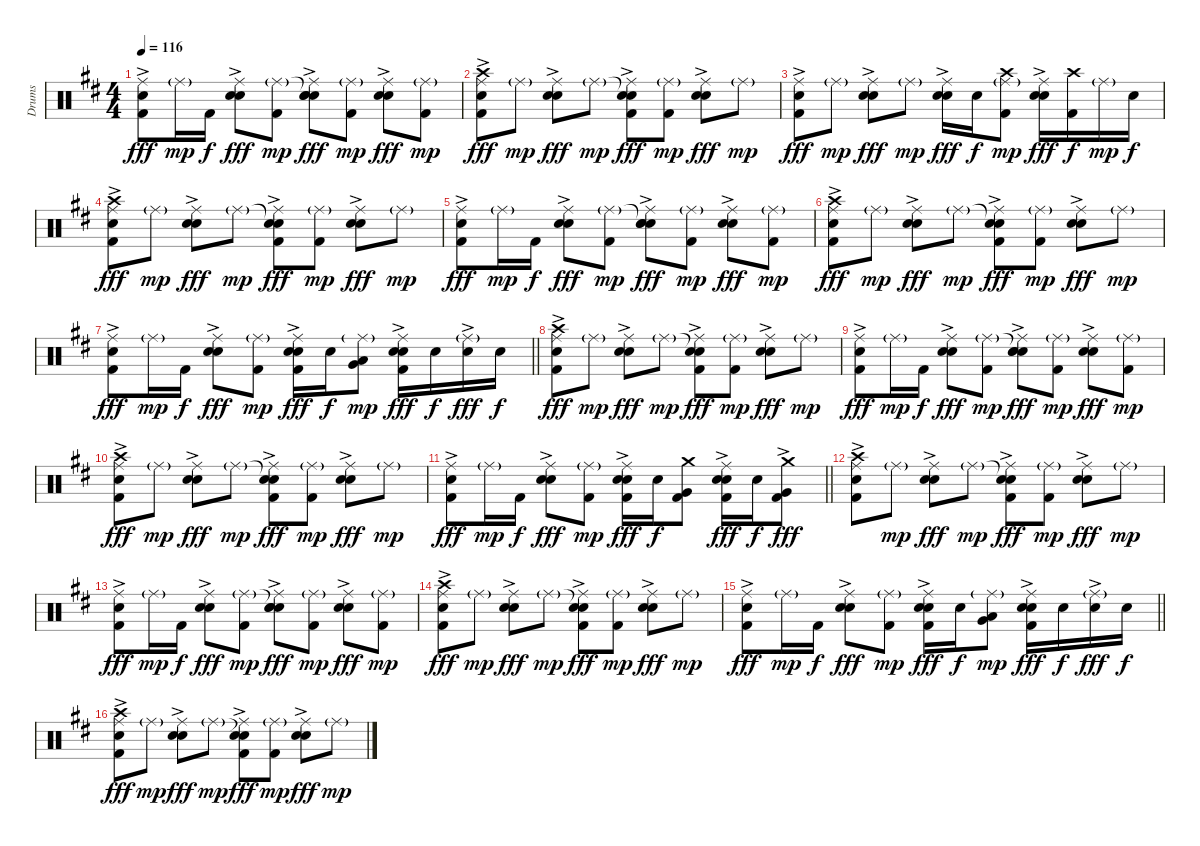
\track ("Drums" "Drums") {instrument percussion}
\staff {score}
\articulation defaults
\ts (4 4)
\tempo 116
\clef neutral
\ks d
("Ride (middle)" "Hand Clap (hit)"{ac} "Kick (hit) 2").8{dy fff} "Ride (middle)"{g}.16{dy mp} "Kick (hit) 2".16{dy f} ("Ride (middle)" "Hand Clap (hit)"{ac} "Snare (hit) 2").8{dy fff} ("Ride (middle)"{g} "Kick (hit) 2").8{dy mp} ("Snare (hit)"{t} "Ride (middle)" "Hand Clap (hit)"{ac} "Snare (hit) 2").8{dy fff} ("Ride (middle)"{g} "Kick (hit) 2").8{dy mp} ("Ride (middle)" "Hand Clap (hit)"{ac} "Snare (hit) 2").8{dy fff} ("Ride (middle)"{g} "Kick (hit) 2").8{dy mp} |
("Crash high (hit)" "Ride (middle)" "Hand Clap (hit)"{ac} "Kick (hit) 2").8{dy fff} "Ride (middle)"{g}.8{dy mp} ("Ride (middle)" "Hand Clap (hit)"{ac} "Snare (hit) 2").8{dy fff} "Ride (middle)"{g}.8{dy mp} ("Snare (hit)"{t} "Ride (middle)" "Hand Clap (hit)"{ac} "Kick (hit) 2").8{dy fff} ("Ride (middle)"{g} "Kick (hit) 2").8{dy mp} ("Ride (middle)" "Hand Clap (hit)"{ac} "Snare (hit) 2").8{dy fff} "Ride (middle)"{g}.8{dy mp} |
("Ride (middle)" "Hand Clap (hit)"{ac} "Kick (hit) 2").8{dy fff} "Ride (middle)"{g}.8{dy mp} ("Ride (middle)" "Hand Clap (hit)"{ac} "Snare (hit) 2").8{dy fff} "Ride (middle)"{g}.8{dy mp} ("Ride (middle)" "Hand Clap (hit)"{ac} "Snare (hit) 2").16{dy fff} "Snare (hit) 2".16{dy f} ("Crash high (hit)" "Ride (middle)"{g} "Kick (hit) 2").8{dy mp} ("Ride (middle)" "Hand Clap (hit)"{ac} "Snare (hit) 2").16{dy fff} ("Crash high (hit)" "Kick (hit) 2").16{dy f} "Ride (middle)"{g}.16{dy mp} "Snare (hit) 2".16{dy f} |
("Crash high (hit)" "Ride (middle)" "Hand Clap (hit)"{ac} "Kick (hit) 2").8{dy fff} "Ride (middle)"{g}.8{dy mp} ("Ride (middle)" "Hand Clap (hit)"{ac} "Snare (hit) 2").8{dy fff} "Ride (middle)"{g}.8{dy mp} ("Snare (hit)"{t} "Ride (middle)" "Hand Clap (hit)"{ac} "Kick (hit) 2").8{dy fff} ("Ride (middle)"{g} "Kick (hit) 2").8{dy mp} ("Ride (middle)" "Hand Clap (hit)"{ac} "Snare (hit) 2").8{dy fff} "Ride (middle)"{g}.8{dy mp} |
("Ride (middle)" "Hand Clap (hit)"{ac} "Kick (hit) 2").8{dy fff} "Ride (middle)"{g}.16{dy mp} "Kick (hit) 2".16{dy f} ("Ride (middle)" "Hand Clap (hit)"{ac} "Snare (hit) 2").8{dy fff} ("Ride (middle)"{g} "Kick (hit) 2").8{dy mp} ("Snare (hit)"{t} "Ride (middle)" "Hand Clap (hit)"{ac} "Snare (hit) 2").8{dy fff} ("Ride (middle)"{g} "Kick (hit) 2").8{dy mp} ("Ride (middle)" "Hand Clap (hit)"{ac} "Snare (hit) 2").8{dy fff} ("Ride (middle)"{g} "Kick (hit) 2").8{dy mp} |
("Crash high (hit)" "Ride (middle)" "Hand Clap (hit)"{ac} "Kick (hit) 2").8{dy fff} "Ride (middle)"{g}.8{dy mp} ("Ride (middle)" "Hand Clap (hit)"{ac} "Snare (hit) 2").8{dy fff} "Ride (middle)"{g}.8{dy mp} ("Snare (hit)"{t} "Ride (middle)" "Hand Clap (hit)"{ac} "Kick (hit) 2").8{dy fff} ("Ride (middle)"{g} "Kick (hit) 2").8{dy mp} ("Ride (middle)" "Hand Clap (hit)"{ac} "Snare (hit) 2").8{dy fff} "Ride (middle)"{g}.8{dy mp} |
\barLineRight lightlight
("Ride (middle)" "Hand Clap (hit)"{ac} "Kick (hit) 2").8{dy fff} "Ride (middle)"{g}.16{dy mp} "Kick (hit) 2".16{dy f} ("Ride (middle)" "Hand Clap (hit)"{ac} "Snare (hit) 2").8{dy fff} ("Ride (middle)"{g} "Kick (hit) 2").8{dy mp} ("Ride (middle)" "Hand Clap (hit)"{ac} "Snare (hit) 2" "Kick (hit) 2").16{dy fff} "Snare (hit) 2".16{dy f} ("Ride (middle)"{g} "Low Tom (hit)" "Very Low Tom (hit)").8{dy mp} ("Ride (middle)" "Hand Clap (hit)"{ac} "Snare (hit) 2"{ac} "Kick (hit) 2").16{dy fff} "Snare (hit) 2".16{dy f} ("Ride (middle)"{g} "Snare (hit) 2"{ac}).16{dy fff} "Snare (hit) 2".16{dy f} |
("Crash high (hit)" "Ride (middle)" "Hand Clap (hit)"{ac} "Kick (hit) 2").8{dy fff} "Ride (middle)"{g}.8{dy mp} ("Ride (middle)" "Hand Clap (hit)"{ac} "Snare (hit) 2").8{dy fff} "Ride (middle)"{g}.8{dy mp} ("Snare (hit)"{t} "Ride (middle)" "Hand Clap (hit)"{ac} "Kick (hit) 2").8{dy fff} ("Ride (middle)"{g} "Kick (hit) 2").8{dy mp} ("Ride (middle)" "Hand Clap (hit)"{ac} "Snare (hit) 2").8{dy fff} "Ride (middle)"{g}.8{dy mp} |
("Ride (middle)" "Hand Clap (hit)"{ac} "Kick (hit) 2").8{dy fff} "Ride (middle)"{g}.16{dy mp} "Kick (hit) 2".16{dy f} ("Ride (middle)" "Hand Clap (hit)"{ac} "Snare (hit) 2").8{dy fff} ("Ride (middle)"{g} "Kick (hit) 2").8{dy mp} ("Snare (hit)"{t} "Ride (middle)" "Hand Clap (hit)"{ac} "Snare (hit) 2").8{dy fff} ("Ride (middle)"{g} "Kick (hit) 2").8{dy mp} ("Ride (middle)" "Hand Clap (hit)"{ac} "Snare (hit) 2").8{dy fff} ("Ride (middle)"{g} "Kick (hit) 2").8{dy mp} |
("Crash high (hit)" "Ride (middle)" "Hand Clap (hit)"{ac} "Kick (hit) 2").8{dy fff} "Ride (middle)"{g}.8{dy mp} ("Ride (middle)" "Hand Clap (hit)"{ac} "Snare (hit) 2").8{dy fff} "Ride (middle)"{g}.8{dy mp} ("Snare (hit)"{t} "Ride (middle)" "Hand Clap (hit)"{ac} "Kick (hit) 2").8{dy fff} ("Ride (middle)"{g} "Kick (hit) 2").8{dy mp} ("Ride (middle)" "Hand Clap (hit)"{ac} "Snare (hit) 2").8{dy fff} "Ride (middle)"{g}.8{dy mp} |
\barLineRight lightlight
("Ride (middle)" "Hand Clap (hit)"{ac} "Kick (hit) 2").8{dy fff} "Ride (middle)"{g}.16{dy mp} "Kick (hit) 2".16{dy f} ("Ride (middle)" "Hand Clap (hit)"{ac} "Snare (hit) 2").8{dy fff} ("Ride (middle)"{g} "Kick (hit) 2").8{dy mp} ("Ride (middle)" "Hand Clap (hit)"{ac} "Snare (hit) 2" "Kick (hit) 2").16{dy fff} "Snare (hit) 2".16{dy f} ("Crash medium (hit)" "Very Low Tom (hit)" "Kick (hit) 2").8 ("Ride (middle)" "Hand Clap (hit)"{ac} "Snare (hit) 2"{ac} "Kick (hit) 2").16{dy fff} "Snare (hit) 2".16{dy f} ("Crash medium (hit)" "Very Low Tom (hit)"{ac} "Kick (hit) 2").8{dy fff} |
("Crash high (hit)" "Ride (middle)" "Hand Clap (hit)"{ac} "Kick (hit) 2").8 "Ride (middle)"{g}.8{dy mp} ("Ride (middle)" "Hand Clap (hit)"{ac} "Snare (hit) 2").8{dy fff} "Ride (middle)"{g}.8{dy mp} ("Snare (hit)"{t} "Ride (middle)" "Hand Clap (hit)"{ac} "Kick (hit) 2").8{dy fff} ("Ride (middle)"{g} "Kick (hit) 2").8{dy mp} ("Ride (middle)" "Hand Clap (hit)"{ac} "Snare (hit) 2").8{dy fff} "Ride (middle)"{g}.8{dy mp} |
("Ride (middle)" "Hand Clap (hit)"{ac} "Kick (hit) 2").8{dy fff} "Ride (middle)"{g}.16{dy mp} "Kick (hit) 2".16{dy f} ("Ride (middle)" "Hand Clap (hit)"{ac} "Snare (hit) 2").8{dy fff} ("Ride (middle)"{g} "Kick (hit) 2").8{dy mp} ("Snare (hit)"{t} "Ride (middle)" "Hand Clap (hit)"{ac} "Snare (hit) 2").8{dy fff} ("Ride (middle)"{g} "Kick (hit) 2").8{dy mp} ("Ride (middle)" "Hand Clap (hit)"{ac} "Snare (hit) 2").8{dy fff} ("Ride (middle)"{g} "Kick (hit) 2").8{dy mp} |
("Crash high (hit)" "Ride (middle)" "Hand Clap (hit)"{ac} "Kick (hit) 2").8{dy fff} "Ride (middle)"{g}.8{dy mp} ("Ride (middle)" "Hand Clap (hit)"{ac} "Snare (hit) 2").8{dy fff} "Ride (middle)"{g}.8{dy mp} ("Snare (hit)"{t} "Ride (middle)" "Hand Clap (hit)"{ac} "Kick (hit) 2").8{dy fff} ("Ride (middle)"{g} "Kick (hit) 2").8{dy mp} ("Ride (middle)" "Hand Clap (hit)"{ac} "Snare (hit) 2").8{dy fff} "Ride (middle)"{g}.8{dy mp} |
\barLineRight lightlight
("Ride (middle)" "Hand Clap (hit)"{ac} "Kick (hit) 2").8{dy fff} "Ride (middle)"{g}.16{dy mp} "Kick (hit) 2".16{dy f} ("Ride (middle)" "Hand Clap (hit)"{ac} "Snare (hit) 2").8{dy fff} ("Ride (middle)"{g} "Kick (hit) 2").8{dy mp} ("Ride (middle)" "Hand Clap (hit)"{ac} "Snare (hit) 2" "Kick (hit) 2").16{dy fff} "Snare (hit) 2".16{dy f} ("Ride (middle)"{g} "Low Tom (hit)" "Very Low Tom (hit)").8{dy mp} ("Ride (middle)" "Hand Clap (hit)"{ac} "Snare (hit) 2"{ac} "Kick (hit) 2").16{dy fff} "Snare (hit) 2".16{dy f} ("Ride (middle)"{g} "Snare (hit) 2"{ac}).16{dy fff} "Snare (hit) 2".16{dy f} |
("Crash high (hit)" "Ride (middle)" "Hand Clap (hit)"{ac} "Kick (hit) 2").8{dy fff} "Ride (middle)"{g}.8{dy mp} ("Ride (middle)" "Hand Clap (hit)"{ac} "Snare (hit) 2").8{dy fff} "Ride (middle)"{g}.8{dy mp} ("Snare (hit)"{t} "Ride (middle)" "Hand Clap (hit)"{ac} "Kick (hit) 2").8{dy fff} ("Ride (middle)"{g} "Kick (hit) 2").8{dy mp} ("Ride (middle)" "Hand Clap (hit)"{ac} "Snare (hit) 2").8{dy fff} "Ride (middle)"{g}.8{dy mp}
